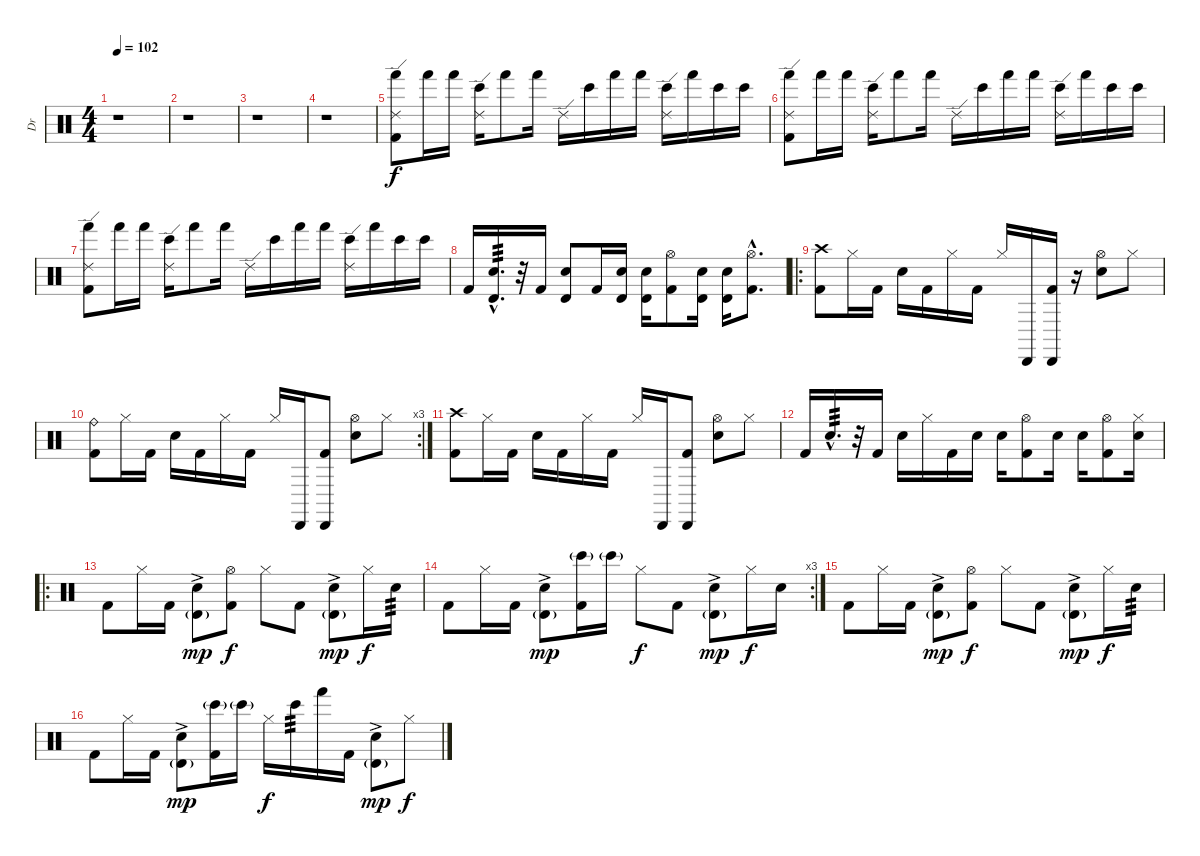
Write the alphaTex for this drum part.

\track ("Dr" "Dr") {instrument percussion}
\staff {score}
\articulation defaults
\ts (4 4)
\tempo 102
\clef neutral
\ks c
r.1{dy f} |
r.1 |
r.1 |
r.1 |
("Ride (edge) 2" "Hand (hit)" "Kick (hit) 2").8 "Hand (hit)".16 "Hand (hit)".16 ("Ride (edge) 2" "Bongo High (hit)").16 "Hand (hit)".8 "Hand (hit)".16 "Ride (edge) 2".16 "Bongo High (hit)".16 "Hand (hit)".16 "Hand (hit)".16 ("Ride (edge) 2" "Bongo High (hit)").16 "Hand (hit)".16 "Bongo High (hit)".16 "Bongo High (hit)".16 |
("Ride (edge) 2" "Hand (hit)" "Kick (hit) 2").8 "Hand (hit)".16 "Hand (hit)".16 ("Ride (edge) 2" "Bongo High (hit)").16 "Hand (hit)".8 "Hand (hit)".16 "Ride (edge) 2".16 "Bongo High (hit)".16 "Hand (hit)".16 "Hand (hit)".16 ("Ride (edge) 2" "Bongo High (hit)").16 "Hand (hit)".16 "Bongo High (hit)".16 "Bongo High (hit)".16 |
("Ride (edge) 2" "Hand (hit)" "Kick (hit) 2").8 "Hand (hit)".16 "Hand (hit)".16 ("Ride (edge) 2" "Bongo High (hit)").16 "Hand (hit)".8 "Hand (hit)".16 "Ride (edge) 2".16 "Bongo High (hit)".16 "Hand (hit)".16 "Hand (hit)".16 ("Ride (edge) 2" "Bongo High (hit)").16 "Hand (hit)".16 "Bongo High (hit)".16 "Bongo High (hit)".16 |
"Kick (hit) 2".16 ("Timbale high (hit)"{hac} "Electric Snare (hit)"{hac}).16{d tp 3} r.32 "Kick (hit) 2".16 ("Timbale high (hit)" "Electric Snare (hit)").8 "Kick (hit) 2".16 ("Timbale high (hit)" "Electric Snare (hit)").16 ("Timbale high (hit)" "Electric Snare (hit)").16 ("Hi-Hat (open)" "Kick (hit) 2").8 ("Timbale high (hit)" "Electric Snare (hit)").16 ("Timbale high (hit)" "Electric Snare (hit)").16 ("Hi-Hat (open)"{hac} "Kick (hit) 2"{hac}).8{d} |
\ro
("Crash high (hit)" "Kick (hit) 2").8 "Hi-Hat (closed)".16 "Kick (hit) 2".16 "Electric Snare (hit)".16 "Kick (hit) 2".16 "Hi-Hat (closed)".16 "Kick (hit) 2".16 "Hi-Hat (closed)".16 "Cabasa (hit)".16 ("Cabasa (hit)" "Kick (hit) 2").16 r.16 ("Hi-Hat (open)" "Electric Snare (hit)").8 "Hi-Hat (closed)".8 |
\rc 3
("Ride (bell)" "Kick (hit) 2").8 "Hi-Hat (closed)".16 "Kick (hit) 2".16 "Electric Snare (hit)".16 "Kick (hit) 2".16 "Hi-Hat (closed)".16 "Kick (hit) 2".16 "Hi-Hat (closed)".16 "Cabasa (hit)".16 ("Cabasa (hit)" "Kick (hit) 2").8 ("Hi-Hat (open)" "Electric Snare (hit)").8 "Hi-Hat (closed)".8 |
("Crash high (hit)" "Kick (hit) 2").8 "Hi-Hat (closed)".16 "Kick (hit) 2".16 "Electric Snare (hit)".16 "Kick (hit) 2".16 "Hi-Hat (closed)".16 "Kick (hit) 2".16 "Hi-Hat (closed)".16 "Cabasa (hit)".16 ("Cabasa (hit)" "Kick (hit) 2").8 ("Hi-Hat (open)" "Electric Snare (hit)").8 "Hi-Hat (closed)".8 |
"Kick (hit) 2".16 "Electric Snare (hit)"{hac}.16{d tp 3} r.32 "Kick (hit) 2".16 "Electric Snare (hit)".16 "Hi-Hat (closed)".16 "Kick (hit) 2".16 "Electric Snare (hit)".16 "Electric Snare (hit)".16 ("Hi-Hat (open)" "Kick (hit) 2").8 "Electric Snare (hit)".16 "Electric Snare (hit)".16 ("Hi-Hat (open)" "Kick (hit) 2").8 ("Hi-Hat (closed)" "Electric Snare (hit)").16 |
\ro "Kick (hit) 2".8 "Hi-Hat (closed)".16 "Kick (hit) 2".16
("Electric Snare (hit)"{ac} "Timbale high (hit)"{g}).8{dy mp} ("Hi-Hat (open)" "Kick (hit) 2").8{dy f} "Hi-Hat (closed)".8 "Kick (hit) 2".8 ("Electric Snare (hit)"{ac} "Timbale high (hit)"{g}).8{dy mp} "Hi-Hat (closed)".16{dy f} "Electric Snare (hit)".16{tp 3} |
\rc 3 "Kick (hit) 2".8 "Hi-Hat (closed)".16 "Kick (hit) 2".16
("Electric Snare (hit)"{ac} "Timbale high (hit)"{g}).8{dy mp} ("Bongo High (hit)"{g} "Kick (hit) 2").16 "Bongo High (hit)"{g}.16 "Hi-Hat (closed)".8{dy f} "Kick (hit) 2".8 ("Electric Snare (hit)"{ac} "Timbale high (hit)"{g}).8{dy mp} "Hi-Hat (closed)".16{dy f} "Electric Snare (hit)".16 |
"Kick (hit) 2".8 "Hi-Hat (closed)".16 "Kick (hit) 2".16 ("Electric Snare (hit)"{ac} "Timbale high (hit)"{g}).8{dy mp} ("Hi-Hat (open)" "Kick (hit) 2").8{dy f} "Hi-Hat (closed)".8 "Kick (hit) 2".8 ("Electric Snare (hit)"{ac} "Timbale high (hit)"{g}).8{dy mp} "Hi-Hat (closed)".16{dy f} "Electric Snare (hit)".16{tp 3} |
"Kick (hit) 2".8 "Hi-Hat (closed)".16 "Kick (hit) 2".16 ("Electric Snare (hit)"{ac} "Timbale high (hit)"{g}).8{dy mp} ("Bongo High (hit)"{g} "Kick (hit) 2").16 "Bongo High (hit)"{g}.16 "Hi-Hat (closed)".16{dy f} "Bongo High (hit)".16{tp 3} "Hand (hit)".16 "Kick (hit) 2".16 ("Electric Snare (hit)"{ac} "Timbale high (hit)"{g}).8{dy mp} "Hi-Hat (closed)".8{dy f}
